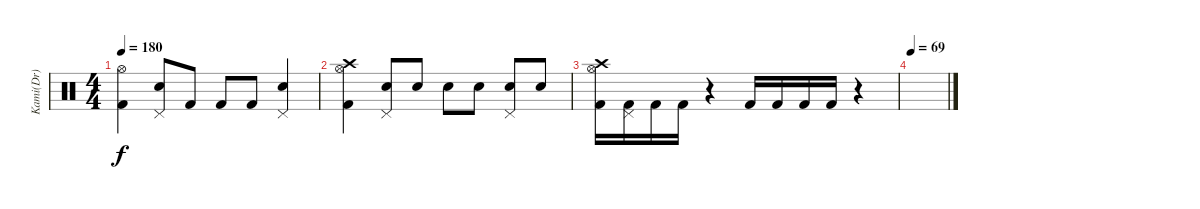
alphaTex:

\track ("Kami(Dr)" "Kami(Dr)") {instrument percussion}
\staff {score}
\articulation defaults
\ts (4 4)
\tempo 180
\clef neutral
\ks c
("Kick (hit) 2" "Hi-Hat (open)").4{dy f} ("Electric Snare (hit)" "Pedal Hi-Hat (hit)").8 "Kick (hit) 2".8 "Kick (hit) 2".8 "Kick (hit) 2".8 ("Electric Snare (hit)" "Pedal Hi-Hat (hit)").4 |
("Kick (hit) 2" "Hi-Hat (open)" "Crash high (hit)").4 ("Electric Snare (hit)" "Pedal Hi-Hat (hit)").8 "Electric Snare (hit)".8 "Electric Snare (hit)".8 "Electric Snare (hit)".8 ("Electric Snare (hit)" "Pedal Hi-Hat (hit)").8 "Electric Snare (hit)".8 |
("Kick (hit) 2" "Hi-Hat (open)" "Crash high (hit)").16 ("Kick (hit) 2" "Pedal Hi-Hat (hit)").16 "Kick (hit) 2".16 "Kick (hit) 2".16 r.4 "Kick (hit) 2".16 "Kick (hit) 2".16 "Kick (hit) 2".16 "Kick (hit) 2".16 r.4 |
\tempo 69
